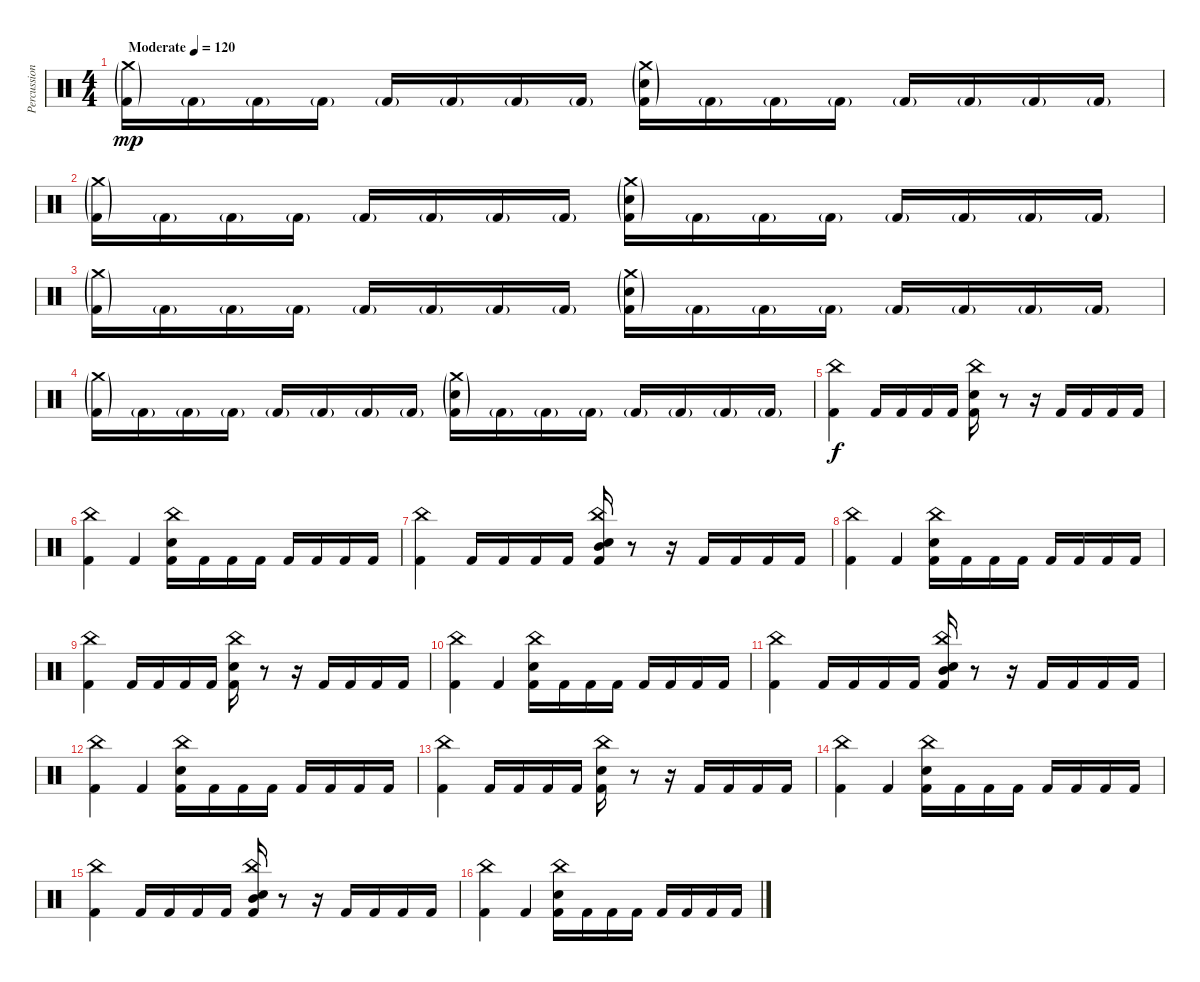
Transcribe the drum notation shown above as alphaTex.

\track ("Percussion" "Percussion") {instrument percussion}
\staff {score}
\articulation defaults
\ts (4 4)
\tempo (120 "Moderate")
\clef neutral
\ks c
("Crash medium (hit)"{g} "Kick (hit) 2"{g}).16{dy mp volume 0} "Kick (hit) 2"{g}.16{volume 10} "Kick (hit) 2"{g}.16 "Kick (hit) 2"{g}.16 "Kick (hit) 2"{g}.16 "Kick (hit) 2"{g}.16 "Kick (hit) 2"{g}.16 "Kick (hit) 2"{g}.16 ("Crash medium (hit)"{g} "Snare (hit) 2"{g} "Kick (hit) 2"{g}).16 "Kick (hit) 2"{g}.16 "Kick (hit) 2"{g}.16 "Kick (hit) 2"{g}.16 "Kick (hit) 2"{g}.16 "Kick (hit) 2"{g}.16 "Kick (hit) 2"{g}.16 "Kick (hit) 2"{g}.16 |
("Crash medium (hit)"{g} "Kick (hit) 2"{g}).16 "Kick (hit) 2"{g}.16 "Kick (hit) 2"{g}.16 "Kick (hit) 2"{g}.16 "Kick (hit) 2"{g}.16 "Kick (hit) 2"{g}.16 "Kick (hit) 2"{g}.16 "Kick (hit) 2"{g}.16 ("Crash medium (hit)"{g} "Snare (hit) 2"{g} "Kick (hit) 2"{g}).16 "Kick (hit) 2"{g}.16 "Kick (hit) 2"{g}.16 "Kick (hit) 2"{g}.16 "Kick (hit) 2"{g}.16 "Kick (hit) 2"{g}.16 "Kick (hit) 2"{g}.16 "Kick (hit) 2"{g}.16 |
("Crash medium (hit)"{g} "Kick (hit) 2"{g}).16 "Kick (hit) 2"{g}.16 "Kick (hit) 2"{g}.16 "Kick (hit) 2"{g}.16 "Kick (hit) 2"{g}.16 "Kick (hit) 2"{g}.16 "Kick (hit) 2"{g}.16 "Kick (hit) 2"{g}.16 ("Crash medium (hit)"{g} "Snare (hit) 2"{g} "Kick (hit) 2"{g}).16 "Kick (hit) 2"{g}.16 "Kick (hit) 2"{g}.16 "Kick (hit) 2"{g}.16 "Kick (hit) 2"{g}.16 "Kick (hit) 2"{g}.16 "Kick (hit) 2"{g}.16 "Kick (hit) 2"{g}.16 |
("Crash medium (hit)"{g} "Kick (hit) 2"{g}).16 "Kick (hit) 2"{g}.16 "Kick (hit) 2"{g}.16 "Kick (hit) 2"{g}.16 "Kick (hit) 2"{g}.16 "Kick (hit) 2"{g}.16 "Kick (hit) 2"{g}.16 "Kick (hit) 2"{g}.16 ("Crash medium (hit)"{g} "Snare (hit) 2"{g} "Kick (hit) 2"{g}).16 "Kick (hit) 2"{g}.16 "Kick (hit) 2"{g}.16 "Kick (hit) 2"{g}.16 "Kick (hit) 2"{g}.16 "Kick (hit) 2"{g}.16 "Kick (hit) 2"{g}.16 "Kick (hit) 2"{g}.16 |
("China (hit)" "Kick (hit) 2").4{dy f} "Kick (hit) 2".16 "Kick (hit) 2".16 "Kick (hit) 2".16 "Kick (hit) 2".16 ("China (hit)" "Snare (hit) 2" "Kick (hit) 2").16 r.8 r.16 "Kick (hit) 2".16 "Kick (hit) 2".16 "Kick (hit) 2".16 "Kick (hit) 2".16 |
("China (hit)" "Kick (hit) 2").4 "Kick (hit) 2".4 ("China (hit)" "Snare (hit) 2" "Kick (hit) 2").16 "Kick (hit) 2".16 "Kick (hit) 2".16 "Kick (hit) 2".16 "Kick (hit) 2".16 "Kick (hit) 2".16 "Kick (hit) 2".16 "Kick (hit) 2".16 |
("China (hit)" "Kick (hit) 2").4 "Kick (hit) 2".16 "Kick (hit) 2".16 "Kick (hit) 2".16 "Kick (hit) 2".16 ("Mid Tom (hit)" "China (hit)" "Snare (hit) 2" "Kick (hit) 2").16 r.8 r.16 "Kick (hit) 2".16 "Kick (hit) 2".16 "Kick (hit) 2".16 "Kick (hit) 2".16 |
("China (hit)" "Kick (hit) 2").4 "Kick (hit) 2".4 ("China (hit)" "Snare (hit) 2" "Kick (hit) 2").16 "Kick (hit) 2".16 "Kick (hit) 2".16 "Kick (hit) 2".16 "Kick (hit) 2".16 "Kick (hit) 2".16 "Kick (hit) 2".16 "Kick (hit) 2".16 |
("China (hit)" "Kick (hit) 2").4 "Kick (hit) 2".16 "Kick (hit) 2".16 "Kick (hit) 2".16 "Kick (hit) 2".16 ("China (hit)" "Snare (hit) 2" "Kick (hit) 2").16 r.8 r.16 "Kick (hit) 2".16 "Kick (hit) 2".16 "Kick (hit) 2".16 "Kick (hit) 2".16 |
("China (hit)" "Kick (hit) 2").4 "Kick (hit) 2".4 ("China (hit)" "Snare (hit) 2" "Kick (hit) 2").16 "Kick (hit) 2".16 "Kick (hit) 2".16 "Kick (hit) 2".16 "Kick (hit) 2".16 "Kick (hit) 2".16 "Kick (hit) 2".16 "Kick (hit) 2".16 |
("China (hit)" "Kick (hit) 2").4 "Kick (hit) 2".16 "Kick (hit) 2".16 "Kick (hit) 2".16 "Kick (hit) 2".16 ("Mid Tom (hit)" "China (hit)" "Snare (hit) 2" "Kick (hit) 2").16 r.8 r.16 "Kick (hit) 2".16 "Kick (hit) 2".16 "Kick (hit) 2".16 "Kick (hit) 2".16 |
("China (hit)" "Kick (hit) 2").4 "Kick (hit) 2".4 ("China (hit)" "Snare (hit) 2" "Kick (hit) 2").16 "Kick (hit) 2".16 "Kick (hit) 2".16 "Kick (hit) 2".16 "Kick (hit) 2".16 "Kick (hit) 2".16 "Kick (hit) 2".16 "Kick (hit) 2".16 |
("China (hit)" "Kick (hit) 2").4 "Kick (hit) 2".16 "Kick (hit) 2".16 "Kick (hit) 2".16 "Kick (hit) 2".16 ("China (hit)" "Snare (hit) 2" "Kick (hit) 2").16 r.8 r.16 "Kick (hit) 2".16 "Kick (hit) 2".16 "Kick (hit) 2".16 "Kick (hit) 2".16 |
("China (hit)" "Kick (hit) 2").4 "Kick (hit) 2".4 ("China (hit)" "Snare (hit) 2" "Kick (hit) 2").16 "Kick (hit) 2".16 "Kick (hit) 2".16 "Kick (hit) 2".16 "Kick (hit) 2".16 "Kick (hit) 2".16 "Kick (hit) 2".16 "Kick (hit) 2".16 |
("China (hit)" "Kick (hit) 2").4 "Kick (hit) 2".16 "Kick (hit) 2".16 "Kick (hit) 2".16 "Kick (hit) 2".16 ("Mid Tom (hit)" "China (hit)" "Snare (hit) 2" "Kick (hit) 2").16 r.8 r.16 "Kick (hit) 2".16 "Kick (hit) 2".16 "Kick (hit) 2".16 "Kick (hit) 2".16 |
("China (hit)" "Kick (hit) 2").4 "Kick (hit) 2".4 ("China (hit)" "Snare (hit) 2" "Kick (hit) 2").16 "Kick (hit) 2".16 "Kick (hit) 2".16 "Kick (hit) 2".16 "Kick (hit) 2".16 "Kick (hit) 2".16 "Kick (hit) 2".16 "Kick (hit) 2".16
